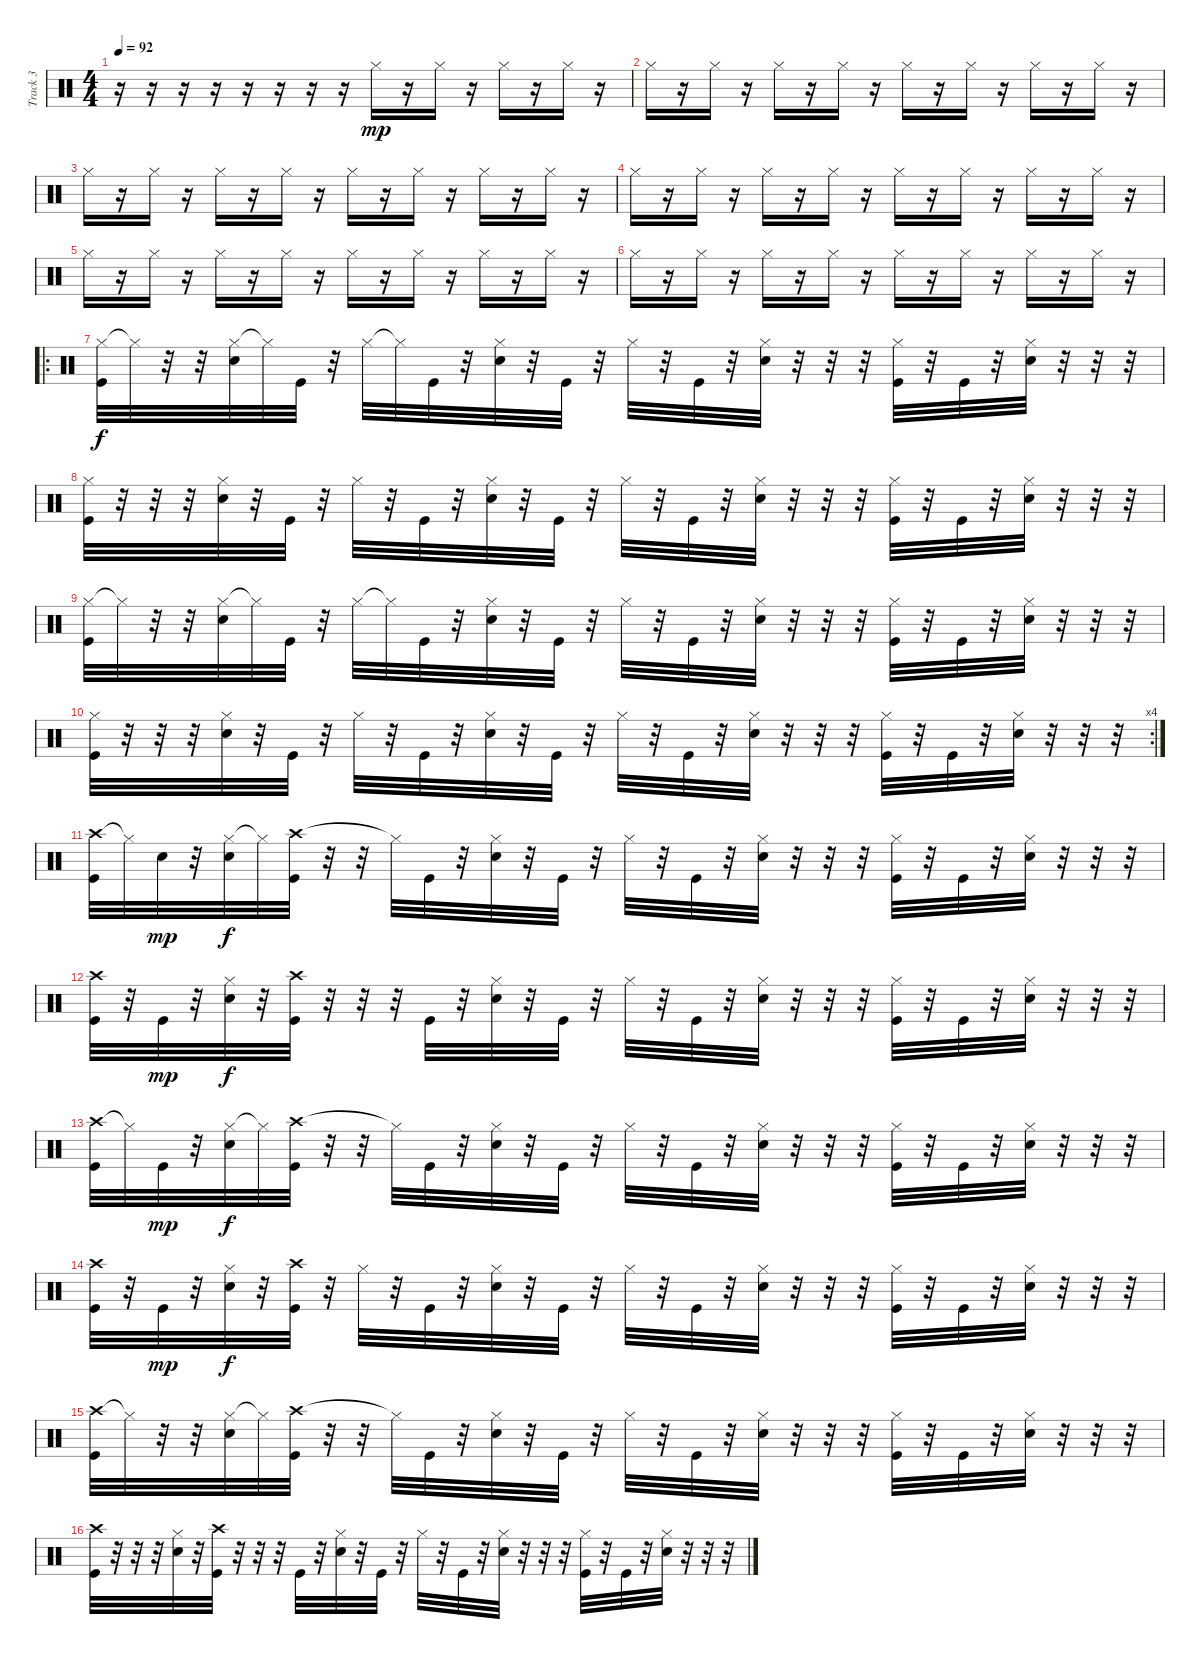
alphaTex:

\track ("Track 3" "Track 3") {instrument percussion}
\staff {score}
\articulation defaults
\ts (4 4)
\tempo 92
\clef neutral
\ks c
r.16{dy mp} r.16 r.16 r.16 r.16 r.16 r.16 r.16 "Hi-Hat (closed)".16 r.16 "Hi-Hat (closed)".16 r.16 "Hi-Hat (closed)".16 r.16 "Hi-Hat (closed)".16 r.16 |
"Hi-Hat (closed)".16 r.16 "Hi-Hat (closed)".16 r.16 "Hi-Hat (closed)".16 r.16 "Hi-Hat (closed)".16 r.16 "Hi-Hat (closed)".16 r.16 "Hi-Hat (closed)".16 r.16 "Hi-Hat (closed)".16 r.16 "Hi-Hat (closed)".16 r.16 |
"Hi-Hat (closed)".16 r.16 "Hi-Hat (closed)".16 r.16 "Hi-Hat (closed)".16 r.16 "Hi-Hat (closed)".16 r.16 "Hi-Hat (closed)".16 r.16 "Hi-Hat (closed)".16 r.16 "Hi-Hat (closed)".16 r.16 "Hi-Hat (closed)".16 r.16 |
"Hi-Hat (closed)".16 r.16 "Hi-Hat (closed)".16 r.16 "Hi-Hat (closed)".16 r.16 "Hi-Hat (closed)".16 r.16 "Hi-Hat (closed)".16 r.16 "Hi-Hat (closed)".16 r.16 "Hi-Hat (closed)".16 r.16 "Hi-Hat (closed)".16 r.16 |
"Hi-Hat (closed)".16 r.16 "Hi-Hat (closed)".16 r.16 "Hi-Hat (closed)".16 r.16 "Hi-Hat (closed)".16 r.16 "Hi-Hat (closed)".16 r.16 "Hi-Hat (closed)".16 r.16 "Hi-Hat (closed)".16 r.16 "Hi-Hat (closed)".16 r.16 |
"Hi-Hat (closed)".16 r.16 "Hi-Hat (closed)".16 r.16 "Hi-Hat (closed)".16 r.16 "Hi-Hat (closed)".16 r.16 "Hi-Hat (closed)".16 r.16 "Hi-Hat (closed)".16 r.16 "Hi-Hat (closed)".16 r.16 "Hi-Hat (closed)".16 r.16 |
\ro
("Hi-Hat (closed)" "Kick (hit)").32{dy f} "Hi-Hat (closed)"{t}.32 r.32 r.32 ("Hi-Hat (closed)" "Electric Snare (hit)").32 "Hi-Hat (closed)"{t}.32 "Kick (hit)".32 r.32 "Hi-Hat (closed)".32 "Hi-Hat (closed)"{t}.32 "Kick (hit)".32 r.32 ("Hi-Hat (closed)" "Electric Snare (hit)").32 r.32 "Kick (hit)".32 r.32 "Hi-Hat (closed)".32 r.32 "Kick (hit)".32 r.32 ("Hi-Hat (closed)" "Electric Snare (hit)").32 r.32 r.32 r.32 ("Hi-Hat (closed)" "Kick (hit)").32 r.32 "Kick (hit)".32 r.32 ("Hi-Hat (closed)" "Electric Snare (hit)").32 r.32 r.32 r.32 |
("Hi-Hat (closed)" "Kick (hit)").32 r.32 r.32 r.32 ("Hi-Hat (closed)" "Electric Snare (hit)").32 r.32 "Kick (hit)".32 r.32 "Hi-Hat (closed)".32 r.32 "Kick (hit)".32 r.32 ("Hi-Hat (closed)" "Electric Snare (hit)").32 r.32 "Kick (hit)".32 r.32 "Hi-Hat (closed)".32 r.32 "Kick (hit)".32 r.32 ("Hi-Hat (closed)" "Electric Snare (hit)").32 r.32 r.32 r.32 ("Hi-Hat (closed)" "Kick (hit)").32 r.32 "Kick (hit)".32 r.32 ("Hi-Hat (closed)" "Electric Snare (hit)").32 r.32 r.32 r.32 |
("Hi-Hat (closed)" "Kick (hit)").32 "Hi-Hat (closed)"{t}.32 r.32 r.32 ("Hi-Hat (closed)" "Electric Snare (hit)").32 "Hi-Hat (closed)"{t}.32 "Kick (hit)".32 r.32 "Hi-Hat (closed)".32 "Hi-Hat (closed)"{t}.32 "Kick (hit)".32 r.32 ("Hi-Hat (closed)" "Electric Snare (hit)").32 r.32 "Kick (hit)".32 r.32 "Hi-Hat (closed)".32 r.32 "Kick (hit)".32 r.32 ("Hi-Hat (closed)" "Electric Snare (hit)").32 r.32 r.32 r.32 ("Hi-Hat (closed)" "Kick (hit)").32 r.32 "Kick (hit)".32 r.32 ("Hi-Hat (closed)" "Electric Snare (hit)").32 r.32 r.32 r.32 |
\rc 4
("Hi-Hat (closed)" "Kick (hit)").32 r.32 r.32 r.32 ("Hi-Hat (closed)" "Electric Snare (hit)").32 r.32 "Kick (hit)".32 r.32 "Hi-Hat (closed)".32 r.32 "Kick (hit)".32 r.32 ("Hi-Hat (closed)" "Electric Snare (hit)").32 r.32 "Kick (hit)".32 r.32 "Hi-Hat (closed)".32 r.32 "Kick (hit)".32 r.32 ("Hi-Hat (closed)" "Electric Snare (hit)").32 r.32 r.32 r.32 ("Hi-Hat (closed)" "Kick (hit)").32 r.32 "Kick (hit)".32 r.32 ("Hi-Hat (closed)" "Electric Snare (hit)").32 r.32 r.32 r.32 |
("Crash high (hit)" "Kick (hit)").32 "Hi-Hat (closed)"{t}.32 "Metronome (bell)".32{dy mp} r.32 ("Hi-Hat (closed)" "Electric Snare (hit)").32{dy f} "Hi-Hat (closed)"{t}.32 ("Crash high (hit)" "Kick (hit)").32 r.32 r.32 "Hi-Hat (closed)"{t}.32 "Kick (hit)".32 r.32 ("Hi-Hat (closed)" "Electric Snare (hit)").32 r.32 "Kick (hit)".32 r.32 "Hi-Hat (closed)".32 r.32 "Kick (hit)".32 r.32 ("Hi-Hat (closed)" "Electric Snare (hit)").32 r.32 r.32 r.32 ("Hi-Hat (closed)" "Kick (hit)").32 r.32 "Kick (hit)".32 r.32 ("Hi-Hat (closed)" "Electric Snare (hit)").32 r.32 r.32 r.32 |
("Crash high (hit)" "Kick (hit)").32 r.32 "Kick (hit)".32{dy mp} r.32 ("Hi-Hat (closed)" "Electric Snare (hit)").32{dy f} r.32 ("Crash high (hit)" "Kick (hit)").32 r.32 r.32 r.32 "Kick (hit)".32 r.32 ("Hi-Hat (closed)" "Electric Snare (hit)").32 r.32 "Kick (hit)".32 r.32 "Hi-Hat (closed)".32 r.32 "Kick (hit)".32 r.32 ("Hi-Hat (closed)" "Electric Snare (hit)").32 r.32 r.32 r.32 ("Hi-Hat (closed)" "Kick (hit)").32 r.32 "Kick (hit)".32 r.32 ("Hi-Hat (closed)" "Electric Snare (hit)").32 r.32 r.32 r.32 |
("Crash high (hit)" "Kick (hit)").32 "Hi-Hat (closed)"{t}.32 "Kick (hit)".32{dy mp} r.32 ("Hi-Hat (closed)" "Electric Snare (hit)").32{dy f} "Hi-Hat (closed)"{t}.32 ("Crash high (hit)" "Kick (hit)").32 r.32 r.32 "Hi-Hat (closed)"{t}.32 "Kick (hit)".32 r.32 ("Hi-Hat (closed)" "Electric Snare (hit)").32 r.32 "Kick (hit)".32 r.32 "Hi-Hat (closed)".32 r.32 "Kick (hit)".32 r.32 ("Hi-Hat (closed)" "Electric Snare (hit)").32 r.32 r.32 r.32 ("Hi-Hat (closed)" "Kick (hit)").32 r.32 "Kick (hit)".32 r.32 ("Hi-Hat (closed)" "Electric Snare (hit)").32 r.32 r.32 r.32 |
("Crash high (hit)" "Kick (hit)").32 r.32 "Kick (hit)".32{dy mp} r.32 ("Hi-Hat (closed)" "Electric Snare (hit)").32{dy f} r.32 ("Crash high (hit)" "Kick (hit)").32 r.32 "Hi-Hat (closed)".32 r.32 "Kick (hit)".32 r.32 ("Hi-Hat (closed)" "Electric Snare (hit)").32 r.32 "Kick (hit)".32 r.32 "Hi-Hat (closed)".32 r.32 "Kick (hit)".32 r.32 ("Hi-Hat (closed)" "Electric Snare (hit)").32 r.32 r.32 r.32 ("Hi-Hat (closed)" "Kick (hit)").32 r.32 "Kick (hit)".32 r.32 ("Hi-Hat (closed)" "Electric Snare (hit)").32 r.32 r.32 r.32 |
("Crash high (hit)" "Kick (hit)").32 "Hi-Hat (closed)"{t}.32 r.32 r.32 ("Hi-Hat (closed)" "Electric Snare (hit)").32 "Hi-Hat (closed)"{t}.32 ("Crash high (hit)" "Kick (hit)").32 r.32 r.32 "Hi-Hat (closed)"{t}.32 "Kick (hit)".32 r.32 ("Hi-Hat (closed)" "Electric Snare (hit)").32 r.32 "Kick (hit)".32 r.32 "Hi-Hat (closed)".32 r.32 "Kick (hit)".32 r.32 ("Hi-Hat (closed)" "Electric Snare (hit)").32 r.32 r.32 r.32 ("Hi-Hat (closed)" "Kick (hit)").32 r.32 "Kick (hit)".32 r.32 ("Hi-Hat (closed)" "Electric Snare (hit)").32 r.32 r.32 r.32 |
("Crash high (hit)" "Kick (hit)").32 r.32 r.32 r.32 ("Hi-Hat (closed)" "Electric Snare (hit)").32 r.32 ("Crash high (hit)" "Kick (hit)").32 r.32 r.32 r.32 "Kick (hit)".32 r.32 ("Hi-Hat (closed)" "Electric Snare (hit)").32 r.32 "Kick (hit)".32 r.32 "Hi-Hat (closed)".32 r.32 "Kick (hit)".32 r.32 ("Hi-Hat (closed)" "Electric Snare (hit)").32 r.32 r.32 r.32 ("Hi-Hat (closed)" "Kick (hit)").32 r.32 "Kick (hit)".32 r.32 ("Hi-Hat (closed)" "Electric Snare (hit)").32 r.32 r.32 r.32
